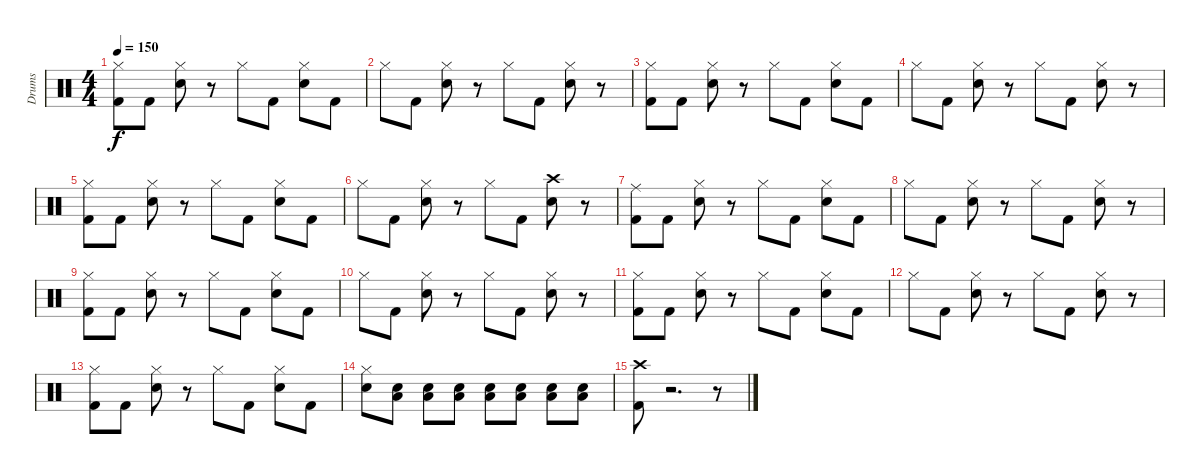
\track ("Drums" "Drums") {instrument percussion}
\staff {score}
\articulation defaults
\ts (4 4)
\tempo 150
\clef neutral
\ks c
("Hi-Hat (closed)" "Kick (hit) 2").8{dy f} "Kick (hit) 2".8 ("Hi-Hat (closed)" "Electric Snare (hit)").8 r.8 "Hi-Hat (closed)".8 "Kick (hit) 2".8 ("Hi-Hat (closed)" "Electric Snare (hit)").8 "Kick (hit) 2".8 |
"Hi-Hat (closed)".8 "Kick (hit) 2".8 ("Hi-Hat (closed)" "Electric Snare (hit)").8 r.8 "Hi-Hat (closed)".8 "Kick (hit) 2".8 ("Hi-Hat (closed)" "Electric Snare (hit)").8 r.8 |
("Hi-Hat (closed)" "Kick (hit) 2").8 "Kick (hit) 2".8 ("Hi-Hat (closed)" "Electric Snare (hit)").8 r.8 "Hi-Hat (closed)".8 "Kick (hit) 2".8 ("Hi-Hat (closed)" "Electric Snare (hit)").8 "Kick (hit) 2".8 |
"Hi-Hat (closed)".8 "Kick (hit) 2".8 ("Hi-Hat (closed)" "Electric Snare (hit)").8 r.8 "Hi-Hat (closed)".8 "Kick (hit) 2".8 ("Hi-Hat (closed)" "Electric Snare (hit)").8 r.8 |
("Hi-Hat (closed)" "Kick (hit) 2").8 "Kick (hit) 2".8 ("Hi-Hat (closed)" "Electric Snare (hit)").8 r.8 "Hi-Hat (closed)".8 "Kick (hit) 2".8 ("Hi-Hat (closed)" "Electric Snare (hit)").8 "Kick (hit) 2".8 |
"Hi-Hat (closed)".8 "Kick (hit) 2".8 ("Hi-Hat (closed)" "Electric Snare (hit)").8 r.8 "Hi-Hat (closed)".8 "Kick (hit) 2".8 ("Crash high (hit)" "Electric Snare (hit)").8 r.8 |
("Ride (middle)" "Kick (hit) 2").8 "Kick (hit) 2".8 ("Hi-Hat (closed)" "Electric Snare (hit)").8 r.8 "Hi-Hat (closed)".8 "Kick (hit) 2".8 ("Hi-Hat (closed)" "Electric Snare (hit)").8 "Kick (hit) 2".8 |
"Hi-Hat (closed)".8 "Kick (hit) 2".8 ("Hi-Hat (closed)" "Electric Snare (hit)").8 r.8 "Hi-Hat (closed)".8 "Kick (hit) 2".8 ("Hi-Hat (closed)" "Electric Snare (hit)").8 r.8 |
("Hi-Hat (closed)" "Kick (hit) 2").8 "Kick (hit) 2".8 ("Hi-Hat (closed)" "Electric Snare (hit)").8 r.8 "Hi-Hat (closed)".8 "Kick (hit) 2".8 ("Hi-Hat (closed)" "Electric Snare (hit)").8 "Kick (hit) 2".8 |
"Hi-Hat (closed)".8 "Kick (hit) 2".8 ("Hi-Hat (closed)" "Electric Snare (hit)").8 r.8 "Hi-Hat (closed)".8 "Kick (hit) 2".8 ("Hi-Hat (closed)" "Electric Snare (hit)").8 r.8 |
("Hi-Hat (closed)" "Kick (hit) 2").8 "Kick (hit) 2".8 ("Hi-Hat (closed)" "Electric Snare (hit)").8 r.8 "Hi-Hat (closed)".8 "Kick (hit) 2".8 ("Hi-Hat (closed)" "Electric Snare (hit)").8 "Kick (hit) 2".8 |
"Hi-Hat (closed)".8 "Kick (hit) 2".8 ("Hi-Hat (closed)" "Electric Snare (hit)").8 r.8 "Hi-Hat (closed)".8 "Kick (hit) 2".8 ("Hi-Hat (closed)" "Electric Snare (hit)").8 r.8 |
("Hi-Hat (closed)" "Kick (hit) 2").8 "Kick (hit) 2".8 ("Hi-Hat (closed)" "Electric Snare (hit)").8 r.8 "Hi-Hat (closed)".8 "Kick (hit) 2".8 ("Hi-Hat (closed)" "Electric Snare (hit)").8 "Kick (hit) 2".8 |
("Hi-Hat (closed)" "Electric Snare (hit)").8 ("Low Floor Tom (hit)" "Electric Snare (hit)").8 ("Low Floor Tom (hit)" "Electric Snare (hit)").8 ("Low Floor Tom (hit)" "Electric Snare (hit)").8 ("Low Floor Tom (hit)" "Electric Snare (hit)").8 ("Low Floor Tom (hit)" "Electric Snare (hit)").8 ("Low Floor Tom (hit)" "Electric Snare (hit)").8 ("Low Floor Tom (hit)" "Electric Snare (hit)").8 |
("Crash high (hit)" "Kick (hit) 2").8 r.2{d} r.8
